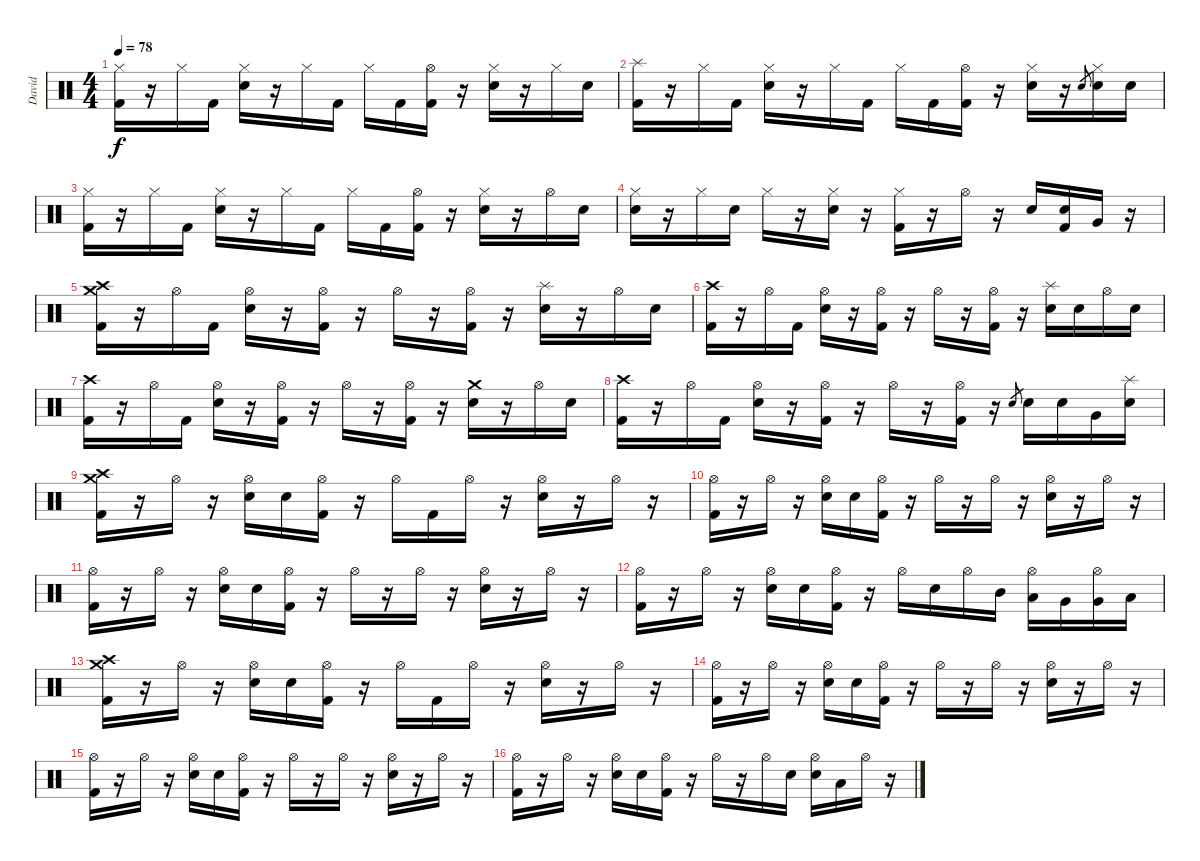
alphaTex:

\track ("David" "David") {instrument percussion}
\staff {score}
\articulation defaults
\ts (4 4)
\tempo 78
\clef neutral
\ks c
("Hi-Hat (closed)" "Kick (hit) 2").16{dy f} r.16 "Hi-Hat (closed)".16 "Kick (hit) 2".16 ("Hi-Hat (closed)" "Snare (hit) 2").16 r.16 "Hi-Hat (closed)".16 "Kick (hit) 2".16 "Hi-Hat (closed)".16 "Kick (hit) 2".16 ("Hi-Hat (open)" "Kick (hit) 2").16 r.16 ("Hi-Hat (closed)" "Snare (hit) 2").16 r.16 "Hi-Hat (closed)".16 "Snare (hit) 2".16 |
("Splash (hit)" "Kick (hit) 2").16 r.16 "Hi-Hat (closed)".16 "Kick (hit) 2".16 ("Hi-Hat (closed)" "Snare (hit) 2").16 r.16 "Hi-Hat (closed)".16 "Kick (hit) 2".16 "Hi-Hat (closed)".16 "Kick (hit) 2".16 ("Hi-Hat (open)" "Kick (hit) 2").16 r.16 ("Hi-Hat (closed)" "Snare (hit) 2").16 r.16 "Snare (hit) 2".8{gr} ("Hi-Hat (closed)" "Snare (hit) 2").16 "Snare (hit) 2".16 |
("Hi-Hat (closed)" "Kick (hit) 2").16 r.16 "Hi-Hat (closed)".16 "Kick (hit) 2".16 ("Hi-Hat (closed)" "Snare (hit) 2").16 r.16 "Hi-Hat (closed)".16 "Kick (hit) 2".16 "Hi-Hat (closed)".16 "Kick (hit) 2".16 ("Hi-Hat (open)" "Kick (hit) 2").16 r.16 ("Hi-Hat (closed)" "Snare (hit) 2").16 r.16 "Hi-Hat (open)".16 "Snare (hit) 2".16 |
("Hi-Hat (closed)" "Snare (hit) 2").16 r.16 "Hi-Hat (closed)".16 "Snare (hit) 2".16 "Hi-Hat (closed)".16 r.16 ("Hi-Hat (closed)" "Snare (hit) 2").16 r.16 ("Hi-Hat (closed)" "Kick (hit) 2").16 r.16 "Hi-Hat (open)".16 r.16 "Snare (hit) 2".16 ("Snare (hit) 2" "Kick (hit) 2").16 "Very Low Tom (hit)".16 r.16 |
("Crash high (hit)" "Crash medium (hit)" "Kick (hit) 2").16 r.16 "Hi-Hat (open)".16 "Kick (hit) 2".16 ("Hi-Hat (open)" "Snare (hit) 2").16 r.16 ("Hi-Hat (open)" "Kick (hit) 2").16 r.16 "Hi-Hat (open)".16 r.16 ("Hi-Hat (open)" "Kick (hit) 2").16 r.16 ("Splash (hit)" "Snare (hit) 2").16 r.16 "Hi-Hat (open)".16 "Snare (hit) 2".16 |
("Crash high (hit)" "Kick (hit) 2").16 r.16 "Hi-Hat (open)".16 "Kick (hit) 2".16 ("Hi-Hat (open)" "Snare (hit) 2").16 r.16 ("Hi-Hat (open)" "Kick (hit) 2").16 r.16 "Hi-Hat (open)".16 r.16 ("Hi-Hat (open)" "Kick (hit) 2").16 r.16 ("Splash (hit)" "Snare (hit) 2").16 "Snare (hit) 2".16 "Hi-Hat (open)".16 "Snare (hit) 2".16 |
("Crash high (hit)" "Kick (hit) 2").16 r.16 "Hi-Hat (open)".16 "Kick (hit) 2".16 ("Hi-Hat (open)" "Snare (hit) 2").16 r.16 ("Hi-Hat (open)" "Kick (hit) 2").16 r.16 "Hi-Hat (open)".16 r.16 ("Hi-Hat (open)" "Kick (hit) 2").16 r.16 ("Crash medium (hit)" "Snare (hit) 2").16 r.16 "Hi-Hat (open)".16 "Snare (hit) 2".16 |
("Crash high (hit)" "Kick (hit) 2").16 r.16 "Hi-Hat (open)".16 "Kick (hit) 2".16 ("Hi-Hat (open)" "Snare (hit) 2").16 r.16 ("Hi-Hat (open)" "Kick (hit) 2").16 r.16 "Hi-Hat (open)".16 r.16 ("Hi-Hat (open)" "Kick (hit) 2").16 r.16 "Snare (hit) 2".8{gr} "Snare (hit) 2".16 "Snare (hit) 2".16 "Very Low Tom (hit)".16 ("Splash (hit)" "Snare (hit) 2"{x}).16 |
("Crash high (hit)" "Crash medium (hit)" "Kick (hit) 2").16 r.16 "Hi-Hat (open)".16 r.16 ("Hi-Hat (open)" "Snare (hit) 2").16 "Snare (hit) 2".16 ("Hi-Hat (open)" "Kick (hit) 2").16 r.16 "Hi-Hat (open)".16 "Kick (hit) 2".16 "Hi-Hat (open)".16 r.16 ("Hi-Hat (open)" "Snare (hit) 2").16 r.16 "Hi-Hat (open)".16 r.16 |
("Hi-Hat (open)" "Kick (hit) 2").16 r.16 "Hi-Hat (open)".16 r.16 ("Hi-Hat (open)" "Snare (hit) 2").16 "Snare (hit) 2".16 ("Hi-Hat (open)" "Kick (hit) 2").16 r.16 "Hi-Hat (open)".16 r.16 "Hi-Hat (open)".16 r.16 ("Hi-Hat (open)" "Snare (hit) 2").16 r.16 "Hi-Hat (open)".16 r.16 |
("Hi-Hat (open)" "Kick (hit) 2").16 r.16 "Hi-Hat (open)".16 r.16 ("Hi-Hat (open)" "Snare (hit) 2").16 "Snare (hit) 2".16 ("Hi-Hat (open)" "Kick (hit) 2").16 r.16 "Hi-Hat (open)".16 r.16 "Hi-Hat (open)".16 r.16 ("Hi-Hat (open)" "Snare (hit) 2").16 r.16 "Hi-Hat (open)".16 r.16 |
("Hi-Hat (open)" "Kick (hit) 2").16 r.16 "Hi-Hat (open)".16 r.16 ("Hi-Hat (open)" "Snare (hit) 2").16 "Snare (hit) 2".16 ("Hi-Hat (open)" "Kick (hit) 2").16 r.16 "Hi-Hat (open)".16 "Snare (hit) 2".16 "Hi-Hat (open)".16 "Mid Tom (hit)".16 ("Hi-Hat (open)" "Low Tom (hit)").16 "Very Low Tom (hit)".16 ("Hi-Hat (open)" "Very Low Tom (hit)").16 "Low Floor Tom (hit)".16 |
("Crash high (hit)" "Crash medium (hit)" "Kick (hit) 2").16 r.16 "Hi-Hat (open)".16 r.16 ("Hi-Hat (open)" "Snare (hit) 2").16 "Snare (hit) 2".16 ("Hi-Hat (open)" "Kick (hit) 2").16 r.16 "Hi-Hat (open)".16 "Kick (hit) 2".16 "Hi-Hat (open)".16 r.16 ("Hi-Hat (open)" "Snare (hit) 2").16 r.16 "Hi-Hat (open)".16 r.16 |
("Hi-Hat (open)" "Kick (hit) 2").16 r.16 "Hi-Hat (open)".16 r.16 ("Hi-Hat (open)" "Snare (hit) 2").16 "Snare (hit) 2".16 ("Hi-Hat (open)" "Kick (hit) 2").16 r.16 "Hi-Hat (open)".16 r.16 "Hi-Hat (open)".16 r.16 ("Hi-Hat (open)" "Snare (hit) 2").16 r.16 "Hi-Hat (open)".16 r.16 |
("Hi-Hat (open)" "Kick (hit) 2").16 r.16 "Hi-Hat (open)".16 r.16 ("Hi-Hat (open)" "Snare (hit) 2").16 "Snare (hit) 2".16 ("Hi-Hat (open)" "Kick (hit) 2").16 r.16 "Hi-Hat (open)".16 r.16 "Hi-Hat (open)".16 r.16 ("Hi-Hat (open)" "Snare (hit) 2").16 r.16 "Hi-Hat (open)".16 r.16 |
("Hi-Hat (open)" "Kick (hit) 2").16 r.16 "Hi-Hat (open)".16 r.16 ("Hi-Hat (open)" "Snare (hit) 2").16 "Snare (hit) 2".16 ("Hi-Hat (open)" "Kick (hit) 2").16 r.16 "Hi-Hat (open)".16 r.16 "Hi-Hat (open)".16 "Snare (hit) 2".16 ("Hi-Hat (open)" "Snare (hit) 2").16 "Low Tom (hit)".16 "Hi-Hat (open)".16 r.16
